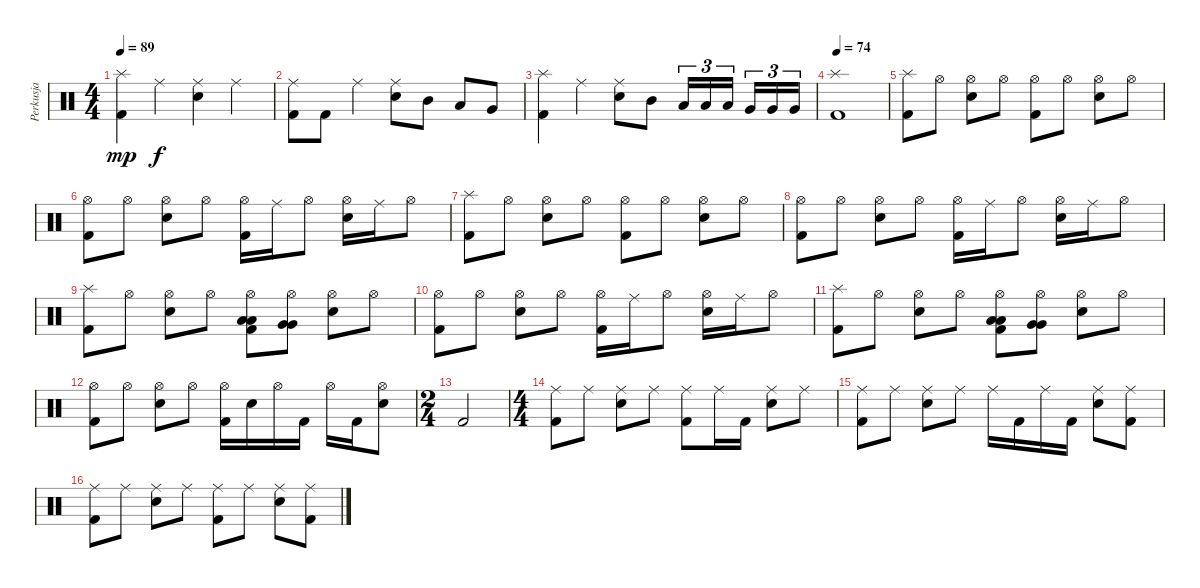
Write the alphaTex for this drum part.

\track ("Perkusja" "Perkusja") {instrument percussion}
\staff {score}
\articulation defaults
\ts (4 4)
\tempo 89
\clef neutral
\ks c
("Splash (hit)" "Kick (hit) 2").4{dy mp} "Ride (middle)".4{dy f} ("Ride (middle)" "Electric Snare (hit)").4 "Ride (middle)".4 |
("Ride (middle)" "Kick (hit) 2").8 "Kick (hit) 2".8 "Ride (middle)".4 ("Ride (middle)" "Electric Snare (hit)").8 "Mid Tom (hit)".8 "Low Tom (hit)".8 "Very Low Tom (hit)".8 |
("Splash (hit)" "Kick (hit) 2").4 "Ride (middle)".4 ("Ride (middle)" "Electric Snare (hit)").8 "Mid Tom (hit)".8 "Low Tom (hit)".16{tu (3 2)} "Low Tom (hit)".16{tu (3 2)} "Low Tom (hit)".16{tu (3 2) beam splitsecondary} "Very Low Tom (hit)".16{tu (3 2)} "Very Low Tom (hit)".16{tu (3 2)} "Very Low Tom (hit)".16{tu (3 2)} |
\tempo 74
("Splash (hit)" "Kick (hit) 2").1 |
("Splash (hit)" "Kick (hit) 2").8 "Hi-Hat (open)".8 ("Hi-Hat (open)" "Electric Snare (hit)").8 "Hi-Hat (open)".8 ("Hi-Hat (open)" "Kick (hit) 2").8 "Hi-Hat (open)".8 ("Hi-Hat (open)" "Electric Snare (hit)").8 "Hi-Hat (open)".8 |
("Hi-Hat (open)" "Kick (hit) 2").8 "Hi-Hat (open)".8 ("Hi-Hat (open)" "Electric Snare (hit)").8 "Hi-Hat (open)".8 ("Hi-Hat (open)" "Kick (hit) 2").16 "Ride (middle)".16 "Hi-Hat (open)".8 ("Hi-Hat (open)" "Electric Snare (hit)").16 "Ride (middle)".16 "Hi-Hat (open)".8 |
("Splash (hit)" "Kick (hit) 2").8 "Hi-Hat (open)".8 ("Hi-Hat (open)" "Electric Snare (hit)").8 "Hi-Hat (open)".8 ("Hi-Hat (open)" "Kick (hit) 2").8 "Hi-Hat (open)".8 ("Hi-Hat (open)" "Electric Snare (hit)").8 "Hi-Hat (open)".8 |
("Hi-Hat (open)" "Kick (hit) 2").8 "Hi-Hat (open)".8 ("Hi-Hat (open)" "Electric Snare (hit)").8 "Hi-Hat (open)".8 ("Hi-Hat (open)" "Kick (hit) 2").16 "Ride (middle)".16 "Hi-Hat (open)".8 ("Hi-Hat (open)" "Electric Snare (hit)").16 "Ride (middle)".16 "Hi-Hat (open)".8 |
("Splash (hit)" "Kick (hit) 2").8 "Hi-Hat (open)".8 ("Hi-Hat (open)" "Electric Snare (hit)").8 "Hi-Hat (open)".8 ("Hi-Hat (open)" "Low Tom (hit)" "Low Tom (hit)" "Kick (hit) 2").8 ("Hi-Hat (open)" "Very Low Tom (hit)" "Very Low Tom (hit)").8 ("Hi-Hat (open)" "Electric Snare (hit)").8 "Hi-Hat (open)".8 |
("Hi-Hat (open)" "Kick (hit) 2").8 "Hi-Hat (open)".8 ("Hi-Hat (open)" "Electric Snare (hit)").8 "Hi-Hat (open)".8 ("Hi-Hat (open)" "Kick (hit) 2").16 "Ride (middle)".16 "Hi-Hat (open)".8 ("Hi-Hat (open)" "Electric Snare (hit)").16 "Ride (middle)".16 "Hi-Hat (open)".8 |
("Splash (hit)" "Kick (hit) 2").8 "Hi-Hat (open)".8 ("Hi-Hat (open)" "Electric Snare (hit)").8 "Hi-Hat (open)".8 ("Hi-Hat (open)" "Low Tom (hit)" "Low Tom (hit)" "Kick (hit) 2").8 ("Hi-Hat (open)" "Very Low Tom (hit)" "Very Low Tom (hit)").8 ("Hi-Hat (open)" "Electric Snare (hit)").8 "Hi-Hat (open)".8 |
("Hi-Hat (open)" "Kick (hit) 2").8 "Hi-Hat (open)".8 ("Hi-Hat (open)" "Electric Snare (hit)").8 "Hi-Hat (open)".8 ("Hi-Hat (open)" "Kick (hit) 2").16 "Electric Snare (hit)".16 "Hi-Hat (open)".16 "Kick (hit) 2".16 "Hi-Hat (open)".16 "Kick (hit) 2".16 ("Hi-Hat (open)" "Electric Snare (hit)").8 |
\ts (2 4)
"Kick (hit) 2".2 |
\ts (4 4)
("Ride (middle)" "Kick (hit) 2").8 "Ride (middle)".8 ("Ride (middle)" "Electric Snare (hit)").8 "Ride (middle)".8 ("Ride (middle)" "Kick (hit) 2").8 "Ride (middle)".16 "Kick (hit) 2".16 ("Ride (middle)" "Electric Snare (hit)").8 "Ride (middle)".8 |
("Ride (middle)" "Kick (hit) 2").8 "Ride (middle)".8 ("Ride (middle)" "Electric Snare (hit)").8 "Ride (middle)".8 "Ride (middle)".16 "Kick (hit) 2".16 "Ride (middle)".16 "Kick (hit) 2".16 ("Ride (middle)" "Electric Snare (hit)").8 ("Ride (middle)" "Kick (hit) 2").8 |
("Ride (middle)" "Kick (hit) 2").8 "Ride (middle)".8 ("Ride (middle)" "Electric Snare (hit)").8 "Ride (middle)".8 ("Ride (middle)" "Kick (hit) 2").8 "Ride (middle)".8 ("Ride (middle)" "Electric Snare (hit)").8 ("Ride (middle)" "Kick (hit) 2").8
